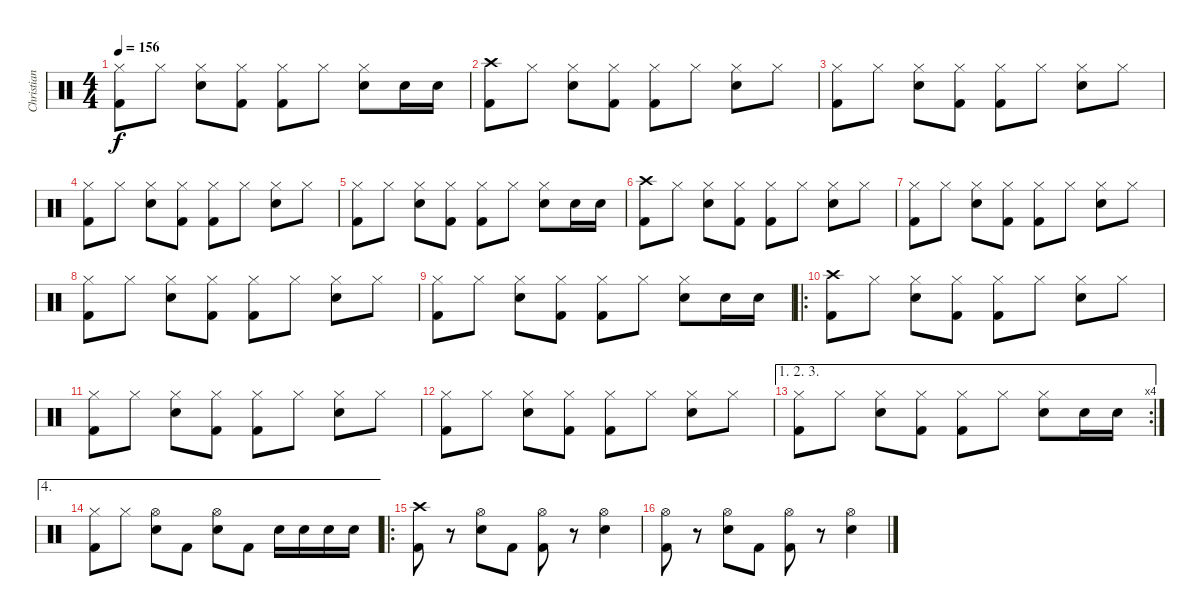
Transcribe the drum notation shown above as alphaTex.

\track ("Christian" "Christian") {instrument percussion}
\staff {score}
\articulation defaults
\ts (4 4)
\tempo 156
\clef neutral
\ks c
("Hi-Hat (closed)" "Kick (hit) 2").8{dy f} "Hi-Hat (closed)".8 ("Hi-Hat (closed)" "Snare (hit) 2").8 ("Hi-Hat (closed)" "Kick (hit) 2").8 ("Hi-Hat (closed)" "Kick (hit) 2").8 "Hi-Hat (closed)".8 ("Hi-Hat (closed)" "Snare (hit) 2").8 "Snare (hit) 2".16 "Snare (hit) 2".16 |
("Crash high (hit)" "Kick (hit) 2").8 "Hi-Hat (closed)".8 ("Hi-Hat (closed)" "Snare (hit) 2").8 ("Hi-Hat (closed)" "Kick (hit) 2").8 ("Hi-Hat (closed)" "Kick (hit) 2").8 "Hi-Hat (closed)".8 ("Hi-Hat (closed)" "Snare (hit) 2").8 "Hi-Hat (closed)".8 |
("Hi-Hat (closed)" "Kick (hit) 2").8 "Hi-Hat (closed)".8 ("Hi-Hat (closed)" "Snare (hit) 2").8 ("Hi-Hat (closed)" "Kick (hit) 2").8 ("Hi-Hat (closed)" "Kick (hit) 2").8 "Hi-Hat (closed)".8 ("Hi-Hat (closed)" "Snare (hit) 2").8 "Hi-Hat (closed)".8 |
("Hi-Hat (closed)" "Kick (hit) 2").8 "Hi-Hat (closed)".8 ("Hi-Hat (closed)" "Snare (hit) 2").8 ("Hi-Hat (closed)" "Kick (hit) 2").8 ("Hi-Hat (closed)" "Kick (hit) 2").8 "Hi-Hat (closed)".8 ("Hi-Hat (closed)" "Snare (hit) 2").8 "Hi-Hat (closed)".8 |
("Hi-Hat (closed)" "Kick (hit) 2").8 "Hi-Hat (closed)".8 ("Hi-Hat (closed)" "Snare (hit) 2").8 ("Hi-Hat (closed)" "Kick (hit) 2").8 ("Hi-Hat (closed)" "Kick (hit) 2").8 "Hi-Hat (closed)".8 ("Hi-Hat (closed)" "Snare (hit) 2").8 "Snare (hit) 2".16 "Snare (hit) 2".16 |
("Crash high (hit)" "Kick (hit) 2").8 "Hi-Hat (closed)".8 ("Hi-Hat (closed)" "Snare (hit) 2").8 ("Hi-Hat (closed)" "Kick (hit) 2").8 ("Hi-Hat (closed)" "Kick (hit) 2").8 "Hi-Hat (closed)".8 ("Hi-Hat (closed)" "Snare (hit) 2").8 "Hi-Hat (closed)".8 |
("Hi-Hat (closed)" "Kick (hit) 2").8 "Hi-Hat (closed)".8 ("Hi-Hat (closed)" "Snare (hit) 2").8 ("Hi-Hat (closed)" "Kick (hit) 2").8 ("Hi-Hat (closed)" "Kick (hit) 2").8 "Hi-Hat (closed)".8 ("Hi-Hat (closed)" "Snare (hit) 2").8 "Hi-Hat (closed)".8 |
("Hi-Hat (closed)" "Kick (hit) 2").8 "Hi-Hat (closed)".8 ("Hi-Hat (closed)" "Snare (hit) 2").8 ("Hi-Hat (closed)" "Kick (hit) 2").8 ("Hi-Hat (closed)" "Kick (hit) 2").8 "Hi-Hat (closed)".8 ("Hi-Hat (closed)" "Snare (hit) 2").8 "Hi-Hat (closed)".8 |
("Hi-Hat (closed)" "Kick (hit) 2").8 "Hi-Hat (closed)".8 ("Hi-Hat (closed)" "Snare (hit) 2").8 ("Hi-Hat (closed)" "Kick (hit) 2").8 ("Hi-Hat (closed)" "Kick (hit) 2").8 "Hi-Hat (closed)".8 ("Hi-Hat (closed)" "Snare (hit) 2").8 "Snare (hit) 2".16 "Snare (hit) 2".16 |
\ro
("Crash high (hit)" "Kick (hit) 2").8 "Hi-Hat (closed)".8 ("Hi-Hat (closed)" "Snare (hit) 2").8 ("Hi-Hat (closed)" "Kick (hit) 2").8 ("Hi-Hat (closed)" "Kick (hit) 2").8 "Hi-Hat (closed)".8 ("Hi-Hat (closed)" "Snare (hit) 2").8 "Hi-Hat (closed)".8 |
("Hi-Hat (closed)" "Kick (hit) 2").8 "Hi-Hat (closed)".8 ("Hi-Hat (closed)" "Snare (hit) 2").8 ("Hi-Hat (closed)" "Kick (hit) 2").8 ("Hi-Hat (closed)" "Kick (hit) 2").8 "Hi-Hat (closed)".8 ("Hi-Hat (closed)" "Snare (hit) 2").8 "Hi-Hat (closed)".8 |
("Hi-Hat (closed)" "Kick (hit) 2").8 "Hi-Hat (closed)".8 ("Hi-Hat (closed)" "Snare (hit) 2").8 ("Hi-Hat (closed)" "Kick (hit) 2").8 ("Hi-Hat (closed)" "Kick (hit) 2").8 "Hi-Hat (closed)".8 ("Hi-Hat (closed)" "Snare (hit) 2").8 "Hi-Hat (closed)".8 |
\ae (1 2 3)
\rc 4
("Hi-Hat (closed)" "Kick (hit) 2").8 "Hi-Hat (closed)".8 ("Hi-Hat (closed)" "Snare (hit) 2").8 ("Hi-Hat (closed)" "Kick (hit) 2").8 ("Hi-Hat (closed)" "Kick (hit) 2").8 "Hi-Hat (closed)".8 ("Hi-Hat (closed)" "Snare (hit) 2").8 "Snare (hit) 2".16 "Snare (hit) 2".16 |
\ae 4
("Hi-Hat (closed)" "Kick (hit) 2").8 "Hi-Hat (closed)".8 ("Hi-Hat (open)" "Snare (hit) 2").8 "Kick (hit) 2".8 ("Hi-Hat (open)" "Snare (hit) 2").8 "Kick (hit) 2".8 "Snare (hit) 2".16 "Snare (hit) 2".16 "Snare (hit) 2".16 "Snare (hit) 2".16 |
\ro
("Crash high (hit)" "Kick (hit) 2").8 r.8 ("Hi-Hat (open)" "Snare (hit) 2").8 "Kick (hit) 2".8 ("Hi-Hat (open)" "Kick (hit) 2").8 r.8 ("Hi-Hat (open)" "Snare (hit) 2").4 |
("Hi-Hat (open)" "Kick (hit) 2").8 r.8 ("Hi-Hat (open)" "Snare (hit) 2").8 "Kick (hit) 2".8 ("Hi-Hat (open)" "Kick (hit) 2").8 r.8 ("Hi-Hat (open)" "Snare (hit) 2").4
